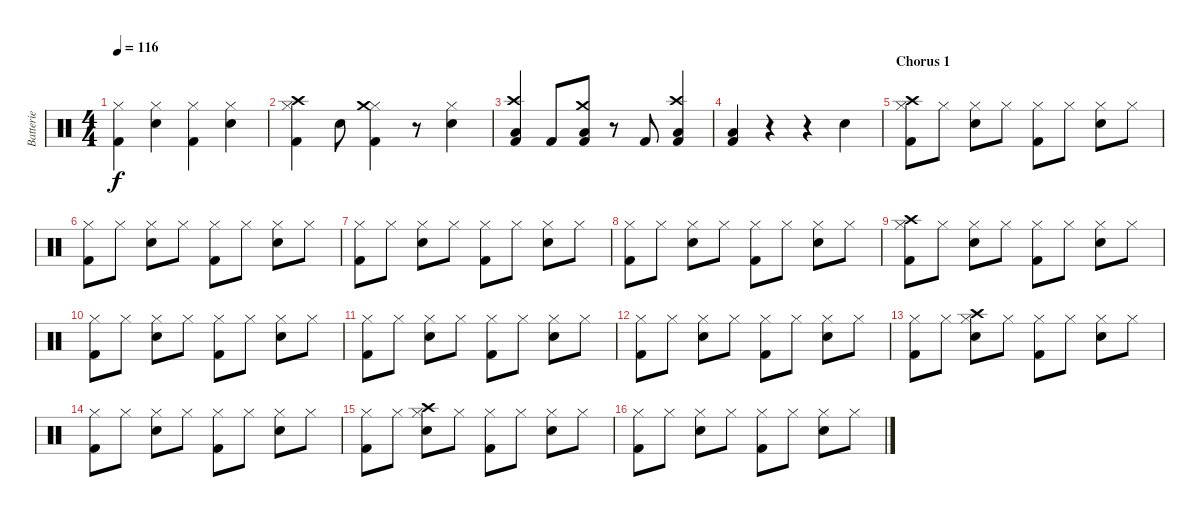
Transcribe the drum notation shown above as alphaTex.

\track ("Batterie" "Batterie") {instrument percussion}
\staff {score}
\articulation defaults
\ts (4 4)
\tempo 116
\clef neutral
\ks c
("Hi-Hat (closed)" "Kick (hit) 2").4{dy f} ("Hi-Hat (closed)" "Snare (hit) 2").4 ("Hi-Hat (closed)" "Kick (hit) 2").4 ("Hi-Hat (closed)" "Snare (hit) 2").4 |
("Hi-Hat (closed)" "Crash high (hit)" "Kick (hit) 2").4 "Snare (hit) 2".8 ("Hi-Hat (closed)" "Crash medium (hit)" "Kick (hit) 2").4 r.8 ("Hi-Hat (closed)" "Snare (hit) 2").4 |
("Low Tom (hit)" "Crash high (hit)" "Kick (hit) 2").4 "Kick (hit) 2".8 ("Low Tom (hit)" "Crash medium (hit)" "Kick (hit) 2").8 r.8 "Kick (hit) 2".8 ("Low Tom (hit)" "Crash high (hit)" "Kick (hit) 2").4 |
("Low Tom (hit)" "Kick (hit) 2").4 r.4 r.4 "Snare (hit) 2".4 |
\section ("" "Chorus 1")
("Hi-Hat (closed)" "Crash high (hit)" "Kick (hit) 2").8 "Hi-Hat (closed)".8 ("Hi-Hat (closed)" "Snare (hit) 2").8 "Hi-Hat (closed)".8 ("Hi-Hat (closed)" "Kick (hit) 2").8 "Hi-Hat (closed)".8 ("Hi-Hat (closed)" "Snare (hit) 2").8 "Hi-Hat (closed)".8 |
("Hi-Hat (closed)" "Kick (hit) 2").8 "Hi-Hat (closed)".8 ("Hi-Hat (closed)" "Snare (hit) 2").8 "Hi-Hat (closed)".8 ("Hi-Hat (closed)" "Kick (hit) 2").8 "Hi-Hat (closed)".8 ("Hi-Hat (closed)" "Snare (hit) 2").8 "Hi-Hat (closed)".8 |
("Hi-Hat (closed)" "Kick (hit) 2").8 "Hi-Hat (closed)".8 ("Hi-Hat (closed)" "Snare (hit) 2").8 "Hi-Hat (closed)".8 ("Hi-Hat (closed)" "Kick (hit) 2").8 "Hi-Hat (closed)".8 ("Hi-Hat (closed)" "Snare (hit) 2").8 "Hi-Hat (closed)".8 |
("Hi-Hat (closed)" "Kick (hit) 2").8 "Hi-Hat (closed)".8 ("Hi-Hat (closed)" "Snare (hit) 2").8 "Hi-Hat (closed)".8 ("Hi-Hat (closed)" "Kick (hit) 2").8 "Hi-Hat (closed)".8 ("Hi-Hat (closed)" "Snare (hit) 2").8 "Hi-Hat (closed)".8 |
("Hi-Hat (closed)" "Crash high (hit)" "Kick (hit) 2").8 "Hi-Hat (closed)".8 ("Hi-Hat (closed)" "Snare (hit) 2").8 "Hi-Hat (closed)".8 ("Hi-Hat (closed)" "Kick (hit) 2").8 "Hi-Hat (closed)".8 ("Hi-Hat (closed)" "Snare (hit) 2").8 "Hi-Hat (closed)".8 |
("Hi-Hat (closed)" "Kick (hit) 2").8 "Hi-Hat (closed)".8 ("Hi-Hat (closed)" "Snare (hit) 2").8 "Hi-Hat (closed)".8 ("Hi-Hat (closed)" "Kick (hit) 2").8 "Hi-Hat (closed)".8 ("Hi-Hat (closed)" "Snare (hit) 2").8 "Hi-Hat (closed)".8 |
("Hi-Hat (closed)" "Kick (hit) 2").8 "Hi-Hat (closed)".8 ("Hi-Hat (closed)" "Snare (hit) 2").8 "Hi-Hat (closed)".8 ("Hi-Hat (closed)" "Kick (hit) 2").8 "Hi-Hat (closed)".8 ("Hi-Hat (closed)" "Snare (hit) 2").8 "Hi-Hat (closed)".8 |
("Hi-Hat (closed)" "Kick (hit) 2").8 "Hi-Hat (closed)".8 ("Hi-Hat (closed)" "Snare (hit) 2").8 "Hi-Hat (closed)".8 ("Hi-Hat (closed)" "Kick (hit) 2").8 "Hi-Hat (closed)".8 ("Hi-Hat (closed)" "Snare (hit) 2").8 "Hi-Hat (closed)".8 |
("Hi-Hat (closed)" "Kick (hit) 2").8 "Hi-Hat (closed)".8 ("Hi-Hat (closed)" "Crash high (hit)" "Snare (hit) 2").8 "Hi-Hat (closed)".8 ("Hi-Hat (closed)" "Kick (hit) 2").8 "Hi-Hat (closed)".8 ("Hi-Hat (closed)" "Snare (hit) 2").8 "Hi-Hat (closed)".8 |
("Hi-Hat (closed)" "Kick (hit) 2").8 "Hi-Hat (closed)".8 ("Hi-Hat (closed)" "Snare (hit) 2").8 "Hi-Hat (closed)".8 ("Hi-Hat (closed)" "Kick (hit) 2").8 "Hi-Hat (closed)".8 ("Hi-Hat (closed)" "Snare (hit) 2").8 "Hi-Hat (closed)".8 |
("Hi-Hat (closed)" "Kick (hit) 2").8 "Hi-Hat (closed)".8 ("Hi-Hat (closed)" "Crash high (hit)" "Snare (hit) 2").8 "Hi-Hat (closed)".8 ("Hi-Hat (closed)" "Kick (hit) 2").8 "Hi-Hat (closed)".8 ("Hi-Hat (closed)" "Snare (hit) 2").8 "Hi-Hat (closed)".8 |
("Hi-Hat (closed)" "Kick (hit) 2").8 "Hi-Hat (closed)".8 ("Hi-Hat (closed)" "Snare (hit) 2").8 "Hi-Hat (closed)".8 ("Hi-Hat (closed)" "Kick (hit) 2").8 "Hi-Hat (closed)".8 ("Hi-Hat (closed)" "Snare (hit) 2").8 "Hi-Hat (closed)".8
